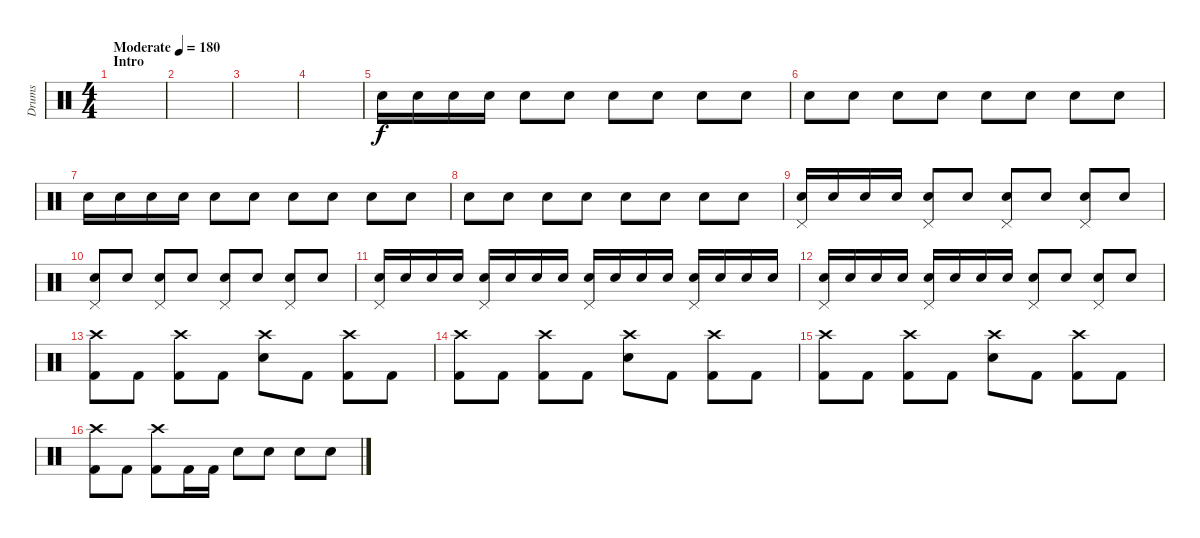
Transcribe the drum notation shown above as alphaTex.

\track ("Drums" "Drums") {instrument percussion}
\staff {score}
\articulation defaults
\ts (4 4)
\section ("" "Intro")
\tempo (180 "Moderate")
\clef neutral
\ks c
|
|
|
|
"Snare (hit) 2".16{volume 8} "Snare (hit) 2".16 "Snare (hit) 2".16 "Snare (hit) 2".16 "Snare (hit) 2".8 "Snare (hit) 2".8 "Snare (hit) 2".8 "Snare (hit) 2".8 "Snare (hit) 2".8 "Snare (hit) 2".8 |
"Snare (hit) 2".8 "Snare (hit) 2".8 "Snare (hit) 2".8 "Snare (hit) 2".8 "Snare (hit) 2".8 "Snare (hit) 2".8 "Snare (hit) 2".8 "Snare (hit) 2".8 |
"Snare (hit) 2".16 "Snare (hit) 2".16 "Snare (hit) 2".16 "Snare (hit) 2".16 "Snare (hit) 2".8 "Snare (hit) 2".8 "Snare (hit) 2".8 "Snare (hit) 2".8 "Snare (hit) 2".8 "Snare (hit) 2".8 |
"Snare (hit) 2".8 "Snare (hit) 2".8 "Snare (hit) 2".8 "Snare (hit) 2".8 "Snare (hit) 2".8 "Snare (hit) 2".8 "Snare (hit) 2".8 "Snare (hit) 2".8 |
("Pedal Hi-Hat (hit)" "Snare (hit) 2").16{volume 12} "Snare (hit) 2".16 "Snare (hit) 2".16 "Snare (hit) 2".16 ("Pedal Hi-Hat (hit)" "Snare (hit) 2").8 "Snare (hit) 2".8 ("Pedal Hi-Hat (hit)" "Snare (hit) 2").8 "Snare (hit) 2".8 ("Pedal Hi-Hat (hit)" "Snare (hit) 2").8 "Snare (hit) 2".8 |
("Pedal Hi-Hat (hit)" "Snare (hit) 2").8 "Snare (hit) 2".8 ("Pedal Hi-Hat (hit)" "Snare (hit) 2").8 "Snare (hit) 2".8 ("Pedal Hi-Hat (hit)" "Snare (hit) 2").8 "Snare (hit) 2".8 ("Pedal Hi-Hat (hit)" "Snare (hit) 2").8 "Snare (hit) 2".8 |
("Pedal Hi-Hat (hit)" "Snare (hit) 2").16 "Snare (hit) 2".16 "Snare (hit) 2".16 "Snare (hit) 2".16 ("Pedal Hi-Hat (hit)" "Snare (hit) 2").16 "Snare (hit) 2".16 "Snare (hit) 2".16 "Snare (hit) 2".16 ("Pedal Hi-Hat (hit)" "Snare (hit) 2").16 "Snare (hit) 2".16 "Snare (hit) 2".16 "Snare (hit) 2".16 ("Pedal Hi-Hat (hit)" "Snare (hit) 2").16 "Snare (hit) 2".16 "Snare (hit) 2".16 "Snare (hit) 2".16 |
("Pedal Hi-Hat (hit)" "Snare (hit) 2").16 "Snare (hit) 2".16 "Snare (hit) 2".16 "Snare (hit) 2".16 ("Pedal Hi-Hat (hit)" "Snare (hit) 2").16 "Snare (hit) 2".16{volume 16} "Snare (hit) 2".16 "Snare (hit) 2".16 ("Pedal Hi-Hat (hit)" "Snare (hit) 2").8 "Snare (hit) 2".8 ("Pedal Hi-Hat (hit)" "Snare (hit) 2").8 "Snare (hit) 2".8 |
("Crash high (hit)" "Kick (hit) 2").8 "Kick (hit) 2".8 ("Crash high (hit)" "Kick (hit) 2").8 "Kick (hit) 2".8 ("Crash high (hit)" "Snare (hit) 2").8 "Kick (hit) 2".8 ("Crash high (hit)" "Kick (hit) 2").8 "Kick (hit) 2".8 |
("Crash high (hit)" "Kick (hit) 2").8 "Kick (hit) 2".8 ("Crash high (hit)" "Kick (hit) 2").8 "Kick (hit) 2".8 ("Crash high (hit)" "Snare (hit) 2").8 "Kick (hit) 2".8 ("Crash high (hit)" "Kick (hit) 2").8 "Kick (hit) 2".8 |
("Crash high (hit)" "Kick (hit) 2").8 "Kick (hit) 2".8 ("Crash high (hit)" "Kick (hit) 2").8 "Kick (hit) 2".8 ("Crash high (hit)" "Snare (hit) 2").8 "Kick (hit) 2".8 ("Crash high (hit)" "Kick (hit) 2").8 "Kick (hit) 2".8 |
("Crash high (hit)" "Kick (hit) 2").8 "Kick (hit) 2".8 ("Crash high (hit)" "Kick (hit) 2").8 "Kick (hit) 2".16 "Kick (hit) 2".16 "Snare (hit) 2".8 "Snare (hit) 2".8 "Snare (hit) 2".8 "Snare (hit) 2".8
